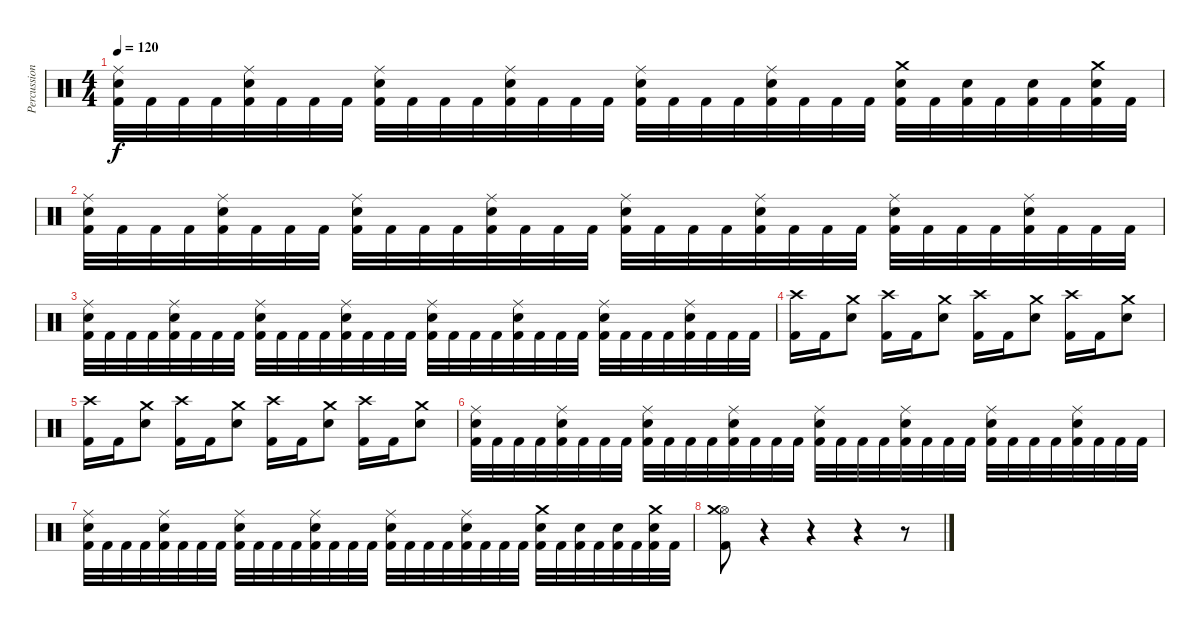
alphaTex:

\track ("Percussion" "Percussion") {instrument percussion}
\staff {score}
\articulation defaults
\ts (4 4)
\tempo 120
\clef neutral
\ks c
("Ride (middle)" "Snare (hit) 2" "Kick (hit) 2").32{dy f} "Kick (hit) 2".32 "Kick (hit) 2".32 "Kick (hit) 2".32 ("Ride (middle)" "Snare (hit) 2" "Kick (hit) 2").32 "Kick (hit) 2".32 "Kick (hit) 2".32 "Kick (hit) 2".32 ("Ride (middle)" "Snare (hit) 2" "Kick (hit) 2").32 "Kick (hit) 2".32 "Kick (hit) 2".32 "Kick (hit) 2".32 ("Ride (middle)" "Snare (hit) 2" "Kick (hit) 2").32 "Kick (hit) 2".32 "Kick (hit) 2".32 "Kick (hit) 2".32 ("Ride (middle)" "Snare (hit) 2" "Kick (hit) 2").32 "Kick (hit) 2".32 "Kick (hit) 2".32 "Kick (hit) 2".32 ("Ride (middle)" "Snare (hit) 2" "Kick (hit) 2").32 "Kick (hit) 2".32 "Kick (hit) 2".32 "Kick (hit) 2".32 ("Crash medium (hit)" "Snare (hit) 2" "Kick (hit) 2").32 "Kick (hit) 2".32 ("Snare (hit) 2" "Kick (hit) 2").32 "Kick (hit) 2".32 ("Snare (hit) 2" "Kick (hit) 2").32 "Kick (hit) 2".32 ("Crash medium (hit)" "Snare (hit) 2" "Kick (hit) 2").32 "Kick (hit) 2".32 |
("Ride (middle)" "Snare (hit) 2" "Kick (hit) 2").32 "Kick (hit) 2".32 "Kick (hit) 2".32 "Kick (hit) 2".32 ("Ride (middle)" "Snare (hit) 2" "Kick (hit) 2").32 "Kick (hit) 2".32 "Kick (hit) 2".32 "Kick (hit) 2".32 ("Ride (middle)" "Snare (hit) 2" "Kick (hit) 2").32 "Kick (hit) 2".32 "Kick (hit) 2".32 "Kick (hit) 2".32 ("Ride (middle)" "Snare (hit) 2" "Kick (hit) 2").32 "Kick (hit) 2".32 "Kick (hit) 2".32 "Kick (hit) 2".32 ("Ride (middle)" "Snare (hit) 2" "Kick (hit) 2").32 "Kick (hit) 2".32 "Kick (hit) 2".32 "Kick (hit) 2".32 ("Ride (middle)" "Snare (hit) 2" "Kick (hit) 2").32 "Kick (hit) 2".32 "Kick (hit) 2".32 "Kick (hit) 2".32 ("Ride (middle)" "Snare (hit) 2" "Kick (hit) 2").32 "Kick (hit) 2".32 "Kick (hit) 2".32 "Kick (hit) 2".32 ("Ride (middle)" "Snare (hit) 2" "Kick (hit) 2").32 "Kick (hit) 2".32 "Kick (hit) 2".32 "Kick (hit) 2".32 |
("Ride (middle)" "Snare (hit) 2" "Kick (hit) 2").32 "Kick (hit) 2".32 "Kick (hit) 2".32 "Kick (hit) 2".32 ("Ride (middle)" "Snare (hit) 2" "Kick (hit) 2").32 "Kick (hit) 2".32 "Kick (hit) 2".32 "Kick (hit) 2".32 ("Ride (middle)" "Snare (hit) 2" "Kick (hit) 2").32 "Kick (hit) 2".32 "Kick (hit) 2".32 "Kick (hit) 2".32 ("Ride (middle)" "Snare (hit) 2" "Kick (hit) 2").32 "Kick (hit) 2".32 "Kick (hit) 2".32 "Kick (hit) 2".32 ("Ride (middle)" "Snare (hit) 2" "Kick (hit) 2").32 "Kick (hit) 2".32 "Kick (hit) 2".32 "Kick (hit) 2".32 ("Ride (middle)" "Snare (hit) 2" "Kick (hit) 2").32 "Kick (hit) 2".32 "Kick (hit) 2".32 "Kick (hit) 2".32 ("Ride (middle)" "Snare (hit) 2" "Kick (hit) 2").32 "Kick (hit) 2".32 "Kick (hit) 2".32 "Kick (hit) 2".32 ("Ride (middle)" "Snare (hit) 2" "Kick (hit) 2").32 "Kick (hit) 2".32 "Kick (hit) 2".32 "Kick (hit) 2".32 |
("Crash high (hit)" "Kick (hit) 2").16 "Kick (hit) 2".16 ("Crash medium (hit)" "Snare (hit) 2").8 ("Crash high (hit)" "Kick (hit) 2").16 "Kick (hit) 2".16 ("Crash medium (hit)" "Snare (hit) 2").8 ("Crash high (hit)" "Kick (hit) 2").16 "Kick (hit) 2".16 ("Crash medium (hit)" "Snare (hit) 2").8 ("Crash high (hit)" "Kick (hit) 2").16 "Kick (hit) 2".16 ("Crash medium (hit)" "Snare (hit) 2").8 |
("Crash high (hit)" "Kick (hit) 2").16 "Kick (hit) 2".16 ("Crash medium (hit)" "Snare (hit) 2").8 ("Crash high (hit)" "Kick (hit) 2").16 "Kick (hit) 2".16 ("Crash medium (hit)" "Snare (hit) 2").8 ("Crash high (hit)" "Kick (hit) 2").16 "Kick (hit) 2".16 ("Crash medium (hit)" "Snare (hit) 2").8 ("Crash high (hit)" "Kick (hit) 2").16 "Kick (hit) 2".16 ("Crash medium (hit)" "Snare (hit) 2").8 |
("Ride (middle)" "Snare (hit) 2" "Kick (hit) 2").32 "Kick (hit) 2".32 "Kick (hit) 2".32 "Kick (hit) 2".32 ("Ride (middle)" "Snare (hit) 2" "Kick (hit) 2").32 "Kick (hit) 2".32 "Kick (hit) 2".32 "Kick (hit) 2".32 ("Ride (middle)" "Snare (hit) 2" "Kick (hit) 2").32 "Kick (hit) 2".32 "Kick (hit) 2".32 "Kick (hit) 2".32 ("Ride (middle)" "Snare (hit) 2" "Kick (hit) 2").32 "Kick (hit) 2".32 "Kick (hit) 2".32 "Kick (hit) 2".32 ("Ride (middle)" "Snare (hit) 2" "Kick (hit) 2").32 "Kick (hit) 2".32 "Kick (hit) 2".32 "Kick (hit) 2".32 ("Ride (middle)" "Snare (hit) 2" "Kick (hit) 2").32 "Kick (hit) 2".32 "Kick (hit) 2".32 "Kick (hit) 2".32 ("Ride (middle)" "Snare (hit) 2" "Kick (hit) 2").32 "Kick (hit) 2".32 "Kick (hit) 2".32 "Kick (hit) 2".32 ("Ride (middle)" "Snare (hit) 2" "Kick (hit) 2").32 "Kick (hit) 2".32 "Kick (hit) 2".32 "Kick (hit) 2".32 |
("Ride (middle)" "Snare (hit) 2" "Kick (hit) 2").32 "Kick (hit) 2".32 "Kick (hit) 2".32 "Kick (hit) 2".32 ("Ride (middle)" "Snare (hit) 2" "Kick (hit) 2").32 "Kick (hit) 2".32 "Kick (hit) 2".32 "Kick (hit) 2".32 ("Ride (middle)" "Snare (hit) 2" "Kick (hit) 2").32 "Kick (hit) 2".32 "Kick (hit) 2".32 "Kick (hit) 2".32 ("Ride (middle)" "Snare (hit) 2" "Kick (hit) 2").32 "Kick (hit) 2".32 "Kick (hit) 2".32 "Kick (hit) 2".32 ("Ride (middle)" "Snare (hit) 2" "Kick (hit) 2").32 "Kick (hit) 2".32 "Kick (hit) 2".32 "Kick (hit) 2".32 ("Ride (middle)" "Snare (hit) 2" "Kick (hit) 2").32 "Kick (hit) 2".32 "Kick (hit) 2".32 "Kick (hit) 2".32 ("Crash medium (hit)" "Snare (hit) 2" "Kick (hit) 2").32 "Kick (hit) 2".32 ("Snare (hit) 2" "Kick (hit) 2").32 "Kick (hit) 2".32 ("Snare (hit) 2" "Kick (hit) 2").32 "Kick (hit) 2".32 ("Crash medium (hit)" "Snare (hit) 2" "Kick (hit) 2").32 "Kick (hit) 2".32 |
("Hi-Hat (open)" "Crash medium (hit)" "Kick (hit) 2").8 r.4 r.4 r.4 r.8
